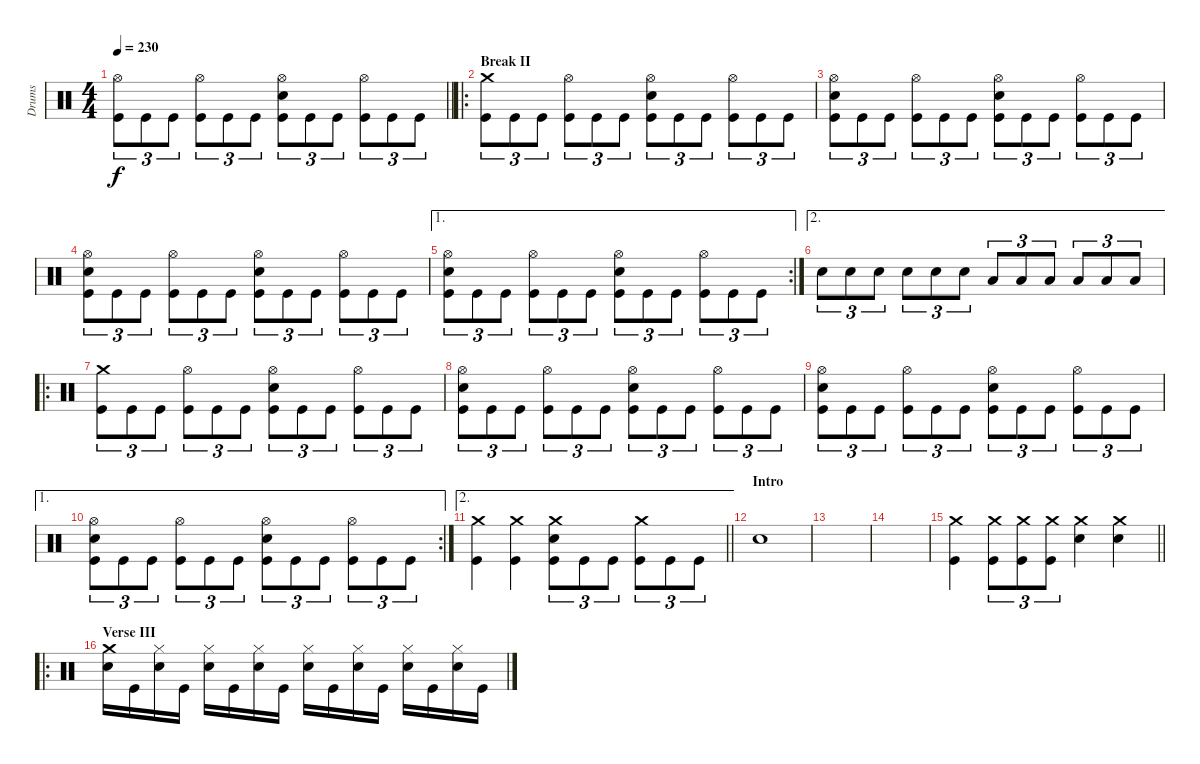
\track ("Drums" "Drums") {instrument percussion}
\staff {score}
\articulation defaults
\ts (4 4)
\tempo 230
\clef neutral
\barLineRight lightlight
\ks c
("Hi-Hat (open)" "Kick (hit)").8{tu (3 2) dy f} "Kick (hit)".8{tu (3 2)} "Kick (hit)".8{tu (3 2)} ("Hi-Hat (open)" "Kick (hit)").8{tu (3 2)} "Kick (hit)".8{tu (3 2)} "Kick (hit)".8{tu (3 2)} ("Hi-Hat (open)" "Electric Snare (hit)" "Kick (hit)").8{tu (3 2)} "Kick (hit)".8{tu (3 2)} "Kick (hit)".8{tu (3 2)} ("Hi-Hat (open)" "Kick (hit)").8{tu (3 2)} "Kick (hit)".8{tu (3 2)} "Kick (hit)".8{tu (3 2)} |
\ro
\section ("" "Break II")
("Crash medium (hit)" "Kick (hit)").8{tu (3 2)} "Kick (hit)".8{tu (3 2)} "Kick (hit)".8{tu (3 2)} ("Hi-Hat (open)" "Kick (hit)").8{tu (3 2)} "Kick (hit)".8{tu (3 2)} "Kick (hit)".8{tu (3 2)} ("Hi-Hat (open)" "Electric Snare (hit)" "Kick (hit)").8{tu (3 2)} "Kick (hit)".8{tu (3 2)} "Kick (hit)".8{tu (3 2)} ("Hi-Hat (open)" "Kick (hit)").8{tu (3 2)} "Kick (hit)".8{tu (3 2)} "Kick (hit)".8{tu (3 2)} |
("Hi-Hat (open)" "Electric Snare (hit)" "Kick (hit)").8{tu (3 2)} "Kick (hit)".8{tu (3 2)} "Kick (hit)".8{tu (3 2)} ("Hi-Hat (open)" "Kick (hit)").8{tu (3 2)} "Kick (hit)".8{tu (3 2)} "Kick (hit)".8{tu (3 2)} ("Hi-Hat (open)" "Electric Snare (hit)" "Kick (hit)").8{tu (3 2)} "Kick (hit)".8{tu (3 2)} "Kick (hit)".8{tu (3 2)} ("Hi-Hat (open)" "Kick (hit)").8{tu (3 2)} "Kick (hit)".8{tu (3 2)} "Kick (hit)".8{tu (3 2)} |
("Hi-Hat (open)" "Electric Snare (hit)" "Kick (hit)").8{tu (3 2)} "Kick (hit)".8{tu (3 2)} "Kick (hit)".8{tu (3 2)} ("Hi-Hat (open)" "Kick (hit)").8{tu (3 2)} "Kick (hit)".8{tu (3 2)} "Kick (hit)".8{tu (3 2)} ("Hi-Hat (open)" "Electric Snare (hit)" "Kick (hit)").8{tu (3 2)} "Kick (hit)".8{tu (3 2)} "Kick (hit)".8{tu (3 2)} ("Hi-Hat (open)" "Kick (hit)").8{tu (3 2)} "Kick (hit)".8{tu (3 2)} "Kick (hit)".8{tu (3 2)} |
\ae 1
\rc 2
("Hi-Hat (open)" "Electric Snare (hit)" "Kick (hit)").8{tu (3 2)} "Kick (hit)".8{tu (3 2)} "Kick (hit)".8{tu (3 2)} ("Hi-Hat (open)" "Kick (hit)").8{tu (3 2)} "Kick (hit)".8{tu (3 2)} "Kick (hit)".8{tu (3 2)} ("Hi-Hat (open)" "Electric Snare (hit)" "Kick (hit)").8{tu (3 2)} "Kick (hit)".8{tu (3 2)} "Kick (hit)".8{tu (3 2)} ("Hi-Hat (open)" "Kick (hit)").8{tu (3 2)} "Kick (hit)".8{tu (3 2)} "Kick (hit)".8{tu (3 2)} |
\ae 2 "Electric Snare (hit)".8{tu (3 2)} "Electric Snare (hit)".8{tu (3 2)} "Electric Snare (hit)".8{tu (3 2)} "Electric Snare (hit)".8{tu (3 2)} "Electric Snare (hit)".8{tu (3 2)} "Electric Snare (hit)".8{tu (3 2)} "Low Tom (hit)".8{tu (3 2)} "Low Tom (hit)".8{tu (3 2)} "Low Tom (hit)".8{tu (3 2)} "Low Floor Tom (hit)".8{tu (3 2)} "Low Floor Tom (hit)".8{tu (3 2)} "Low Floor Tom (hit)".8{tu (3 2)}
|
\ro
("Crash medium (hit)" "Kick (hit)").8{tu (3 2)} "Kick (hit)".8{tu (3 2)} "Kick (hit)".8{tu (3 2)} ("Hi-Hat (open)" "Kick (hit)").8{tu (3 2)} "Kick (hit)".8{tu (3 2)} "Kick (hit)".8{tu (3 2)} ("Hi-Hat (open)" "Electric Snare (hit)" "Kick (hit)").8{tu (3 2)} "Kick (hit)".8{tu (3 2)} "Kick (hit)".8{tu (3 2)} ("Hi-Hat (open)" "Kick (hit)").8{tu (3 2)} "Kick (hit)".8{tu (3 2)} "Kick (hit)".8{tu (3 2)} |
("Hi-Hat (open)" "Electric Snare (hit)" "Kick (hit)").8{tu (3 2)} "Kick (hit)".8{tu (3 2)} "Kick (hit)".8{tu (3 2)} ("Hi-Hat (open)" "Kick (hit)").8{tu (3 2)} "Kick (hit)".8{tu (3 2)} "Kick (hit)".8{tu (3 2)} ("Hi-Hat (open)" "Electric Snare (hit)" "Kick (hit)").8{tu (3 2)} "Kick (hit)".8{tu (3 2)} "Kick (hit)".8{tu (3 2)} ("Hi-Hat (open)" "Kick (hit)").8{tu (3 2)} "Kick (hit)".8{tu (3 2)} "Kick (hit)".8{tu (3 2)} |
("Hi-Hat (open)" "Electric Snare (hit)" "Kick (hit)").8{tu (3 2)} "Kick (hit)".8{tu (3 2)} "Kick (hit)".8{tu (3 2)} ("Hi-Hat (open)" "Kick (hit)").8{tu (3 2)} "Kick (hit)".8{tu (3 2)} "Kick (hit)".8{tu (3 2)} ("Hi-Hat (open)" "Electric Snare (hit)" "Kick (hit)").8{tu (3 2)} "Kick (hit)".8{tu (3 2)} "Kick (hit)".8{tu (3 2)} ("Hi-Hat (open)" "Kick (hit)").8{tu (3 2)} "Kick (hit)".8{tu (3 2)} "Kick (hit)".8{tu (3 2)} |
\ae 1
\rc 2
("Hi-Hat (open)" "Electric Snare (hit)" "Kick (hit)").8{tu (3 2)} "Kick (hit)".8{tu (3 2)} "Kick (hit)".8{tu (3 2)} ("Hi-Hat (open)" "Kick (hit)").8{tu (3 2)} "Kick (hit)".8{tu (3 2)} "Kick (hit)".8{tu (3 2)} ("Hi-Hat (open)" "Electric Snare (hit)" "Kick (hit)").8{tu (3 2)} "Kick (hit)".8{tu (3 2)} "Kick (hit)".8{tu (3 2)} ("Hi-Hat (open)" "Kick (hit)").8{tu (3 2)} "Kick (hit)".8{tu (3 2)} "Kick (hit)".8{tu (3 2)} |
\ae 2
\barLineRight lightlight
("Crash medium (hit)" "Kick (hit)").4 ("Crash medium (hit)" "Kick (hit)").4 ("Crash medium (hit)" "Electric Snare (hit)" "Kick (hit)").8{tu (3 2)} "Kick (hit)".8{tu (3 2)} "Kick (hit)".8{tu (3 2)} ("Crash medium (hit)" "Kick (hit)").8{tu (3 2)} "Kick (hit)".8{tu (3 2)} "Kick (hit)".8{tu (3 2)} |
\section ("" "Intro")
"Electric Snare (hit)".1 |
|
|
\barLineRight lightlight
("Crash medium (hit)" "Kick (hit)").4 ("Crash medium (hit)" "Kick (hit)").8{tu (3 2)} ("Crash medium (hit)" "Kick (hit)").8{tu (3 2)} ("Crash medium (hit)" "Kick (hit)").8{tu (3 2)} ("Crash medium (hit)" "Electric Snare (hit)").4 ("Crash medium (hit)" "Electric Snare (hit)").4 |
\ro
\section ("" "Verse III")
("Crash medium (hit)" "Electric Snare (hit)").16 "Kick (hit)".16 ("Hi-Hat (closed)" "Electric Snare (hit)").16 "Kick (hit)".16 ("Hi-Hat (closed)" "Electric Snare (hit)").16 "Kick (hit)".16 ("Hi-Hat (closed)" "Electric Snare (hit)").16 "Kick (hit)".16 ("Hi-Hat (closed)" "Electric Snare (hit)").16 "Kick (hit)".16 ("Hi-Hat (closed)" "Electric Snare (hit)").16 "Kick (hit)".16 ("Hi-Hat (closed)" "Electric Snare (hit)").16 "Kick (hit)".16 ("Hi-Hat (closed)" "Electric Snare (hit)").16 "Kick (hit)".16
